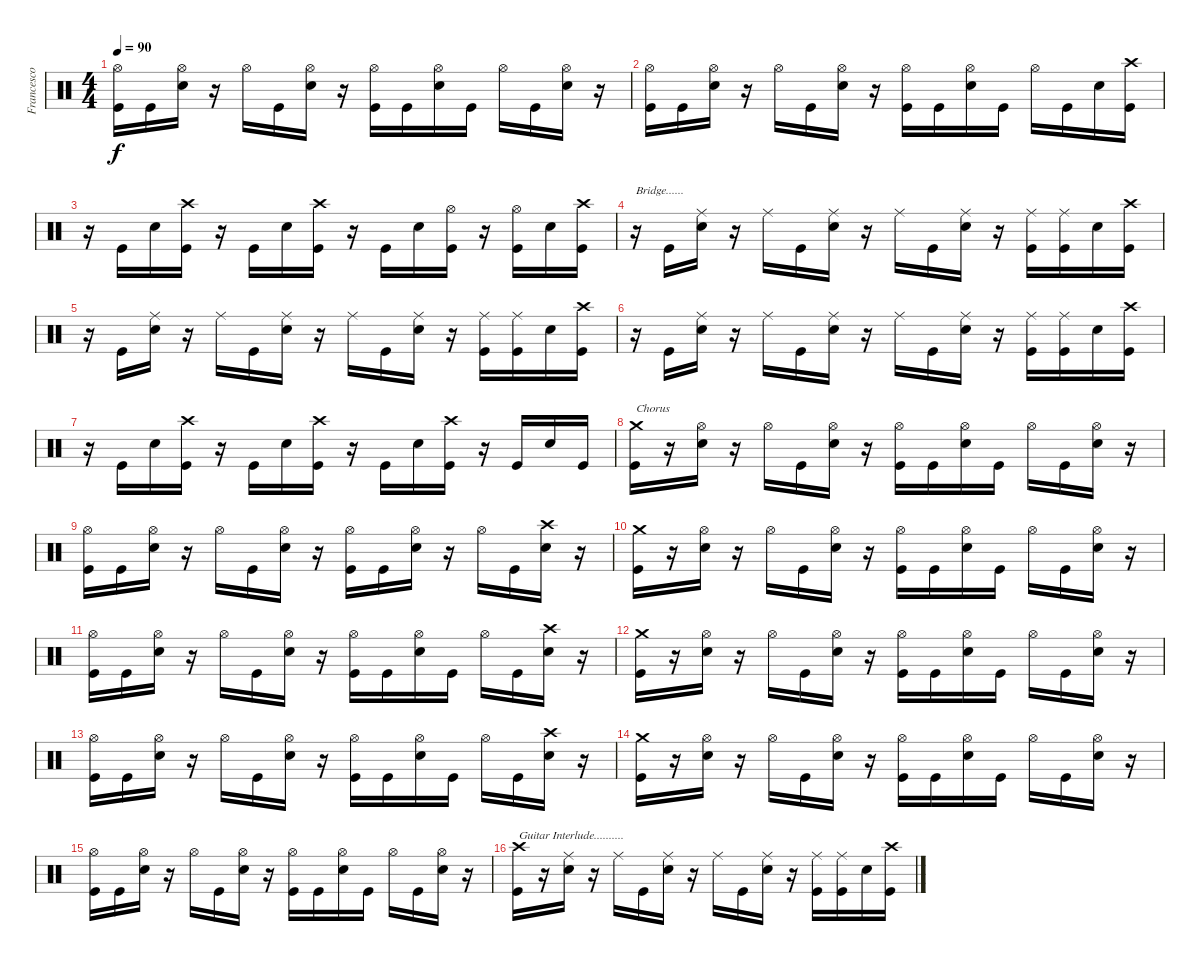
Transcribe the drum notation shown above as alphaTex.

\track ("Francesco Jovino" "Francesco ") {instrument percussion}
\staff {score}
\articulation defaults
\ts (4 4)
\tempo 90
\clef neutral
\ks c
("Hi-Hat (open)" "Kick (hit)").16{dy f} "Kick (hit)".16 ("Snare (hit) 2" "Hi-Hat (open)").16 r.16 "Hi-Hat (open)".16 "Kick (hit)".16 ("Snare (hit) 2" "Hi-Hat (open)").16 r.16 ("Kick (hit)" "Hi-Hat (open)").16 "Kick (hit)".16 ("Snare (hit) 2" "Hi-Hat (open)").16 "Kick (hit)".16 "Hi-Hat (open)".16 "Kick (hit)".16 ("Snare (hit) 2" "Hi-Hat (open)").16 r.16 |
("Hi-Hat (open)" "Kick (hit)").16 "Kick (hit)".16 ("Snare (hit) 2" "Hi-Hat (open)").16 r.16 "Hi-Hat (open)".16 "Kick (hit)".16 ("Snare (hit) 2" "Hi-Hat (open)").16 r.16 ("Kick (hit)" "Hi-Hat (open)").16 "Kick (hit)".16 ("Snare (hit) 2" "Hi-Hat (open)").16 "Kick (hit)".16 "Hi-Hat (open)".16 "Kick (hit)".16 "Snare (hit) 2".16 ("Kick (hit)" "Crash high (hit)").16 |
r.16 "Kick (hit)".16 "Snare (hit) 2".16 ("Crash high (hit)" "Kick (hit)").16 r.16 "Kick (hit)".16 "Snare (hit) 2".16 ("Crash high (hit)" "Kick (hit)").16 r.16 "Kick (hit)".16 "Snare (hit) 2".16 ("Kick (hit)" "Hi-Hat (open)").16 r.16 ("Kick (hit)" "Hi-Hat (open)").16 "Snare (hit) 2".16 ("Crash high (hit)" "Kick (hit)").16 |
r.16{txt "Bridge......"} "Kick (hit)".16 ("Snare (hit) 2" "Ride (middle)").16 r.16 "Ride (middle)".16 "Kick (hit)".16 ("Snare (hit) 2" "Ride (middle)").16 r.16 "Ride (middle)".16 "Kick (hit)".16 ("Snare (hit) 2" "Ride (middle)").16 r.16 ("Kick (hit)" "Ride (middle)").16 ("Kick (hit)" "Ride (middle)").16 "Snare (hit) 2".16 ("Kick (hit)" "Crash high (hit)").16 |
r.16 "Kick (hit)".16 ("Snare (hit) 2" "Ride (middle)").16 r.16 "Ride (middle)".16 "Kick (hit)".16 ("Snare (hit) 2" "Ride (middle)").16 r.16 "Ride (middle)".16 "Kick (hit)".16 ("Snare (hit) 2" "Ride (middle)").16 r.16 ("Kick (hit)" "Ride (middle)").16 ("Kick (hit)" "Ride (middle)").16 "Snare (hit) 2".16 ("Kick (hit)" "Crash high (hit)").16 |
r.16 "Kick (hit)".16 ("Snare (hit) 2" "Ride (middle)").16 r.16 "Ride (middle)".16 "Kick (hit)".16 ("Snare (hit) 2" "Ride (middle)").16 r.16 "Ride (middle)".16 "Kick (hit)".16 ("Snare (hit) 2" "Ride (middle)").16 r.16 ("Kick (hit)" "Ride (middle)").16 ("Kick (hit)" "Ride (middle)").16 "Snare (hit) 2".16 ("Kick (hit)" "Crash high (hit)").16 |
r.16 "Kick (hit)".16 "Snare (hit) 2".16 ("Crash high (hit)" "Kick (hit)").16 r.16 "Kick (hit)".16 "Snare (hit) 2".16 ("Crash high (hit)" "Kick (hit)").16 r.16 "Kick (hit)".16 "Snare (hit) 2".16 ("Kick (hit)" "Crash high (hit)").16 r.16 "Kick (hit)".16 "Snare (hit) 2".16 "Kick (hit)".16 |
("Kick (hit)" "Crash medium (hit)").16{txt "Chorus"} r.16 ("Snare (hit) 2" "Hi-Hat (open)").16 r.16 "Hi-Hat (open)".16 "Kick (hit)".16 ("Snare (hit) 2" "Hi-Hat (open)").16 r.16 ("Kick (hit)" "Hi-Hat (open)").16 "Kick (hit)".16 ("Snare (hit) 2" "Hi-Hat (open)").16 "Kick (hit)".16 "Hi-Hat (open)".16 "Kick (hit)".16 ("Snare (hit) 2" "Hi-Hat (open)").16 r.16 |
("Hi-Hat (open)" "Kick (hit)").16 "Kick (hit)".16 ("Snare (hit) 2" "Hi-Hat (open)").16 r.16 "Hi-Hat (open)".16 "Kick (hit)".16 ("Snare (hit) 2" "Hi-Hat (open)").16 r.16 ("Kick (hit)" "Hi-Hat (open)").16 "Kick (hit)".16 ("Snare (hit) 2" "Hi-Hat (open)").16 r.16 "Hi-Hat (open)".16 "Kick (hit)".16 ("Snare (hit) 2" "Crash high (hit)").16 r.16 |
("Kick (hit)" "Crash medium (hit)").16 r.16 ("Snare (hit) 2" "Hi-Hat (open)").16 r.16 "Hi-Hat (open)".16 "Kick (hit)".16 ("Snare (hit) 2" "Hi-Hat (open)").16 r.16 ("Kick (hit)" "Hi-Hat (open)").16 "Kick (hit)".16 ("Snare (hit) 2" "Hi-Hat (open)").16 "Kick (hit)".16 "Hi-Hat (open)".16 "Kick (hit)".16 ("Snare (hit) 2" "Hi-Hat (open)").16 r.16 |
("Kick (hit)" "Hi-Hat (open)").16 "Kick (hit)".16 ("Snare (hit) 2" "Hi-Hat (open)").16 r.16 "Hi-Hat (open)".16 "Kick (hit)".16 ("Snare (hit) 2" "Hi-Hat (open)").16 r.16 ("Kick (hit)" "Hi-Hat (open)").16 "Kick (hit)".16 ("Snare (hit) 2" "Hi-Hat (open)").16 "Kick (hit)".16 "Hi-Hat (open)".16 "Kick (hit)".16 ("Snare (hit) 2" "Crash high (hit)").16 r.16 |
("Kick (hit)" "Crash medium (hit)").16 r.16 ("Snare (hit) 2" "Hi-Hat (open)").16 r.16 "Hi-Hat (open)".16 "Kick (hit)".16 ("Snare (hit) 2" "Hi-Hat (open)").16 r.16 ("Kick (hit)" "Hi-Hat (open)").16 "Kick (hit)".16 ("Snare (hit) 2" "Hi-Hat (open)").16 "Kick (hit)".16 "Hi-Hat (open)".16 "Kick (hit)".16 ("Snare (hit) 2" "Hi-Hat (open)").16 r.16 |
("Hi-Hat (open)" "Kick (hit)").16 "Kick (hit)".16 ("Snare (hit) 2" "Hi-Hat (open)").16 r.16 "Hi-Hat (open)".16 "Kick (hit)".16 ("Snare (hit) 2" "Hi-Hat (open)").16 r.16 ("Kick (hit)" "Hi-Hat (open)").16 "Kick (hit)".16 ("Snare (hit) 2" "Hi-Hat (open)").16 "Kick (hit)".16 "Hi-Hat (open)".16 "Kick (hit)".16 ("Snare (hit) 2" "Crash high (hit)").16 r.16 |
("Kick (hit)" "Crash medium (hit)").16 r.16 ("Snare (hit) 2" "Hi-Hat (open)").16 r.16 "Hi-Hat (open)".16 "Kick (hit)".16 ("Snare (hit) 2" "Hi-Hat (open)").16 r.16 ("Kick (hit)" "Hi-Hat (open)").16 "Kick (hit)".16 ("Snare (hit) 2" "Hi-Hat (open)").16 "Kick (hit)".16 "Hi-Hat (open)".16 "Kick (hit)".16 ("Snare (hit) 2" "Hi-Hat (open)").16 r.16 |
("Hi-Hat (open)" "Kick (hit)").16 "Kick (hit)".16 ("Snare (hit) 2" "Hi-Hat (open)").16 r.16 "Hi-Hat (open)".16 "Kick (hit)".16 ("Snare (hit) 2" "Hi-Hat (open)").16 r.16 ("Kick (hit)" "Hi-Hat (open)").16 "Kick (hit)".16 ("Snare (hit) 2" "Hi-Hat (open)").16 "Kick (hit)".16 "Hi-Hat (open)".16 "Kick (hit)".16 ("Snare (hit) 2" "Hi-Hat (open)").16 r.16 |
("Crash high (hit)" "Kick (hit)").16{txt "Guitar Interlude.........."} r.16 ("Snare (hit) 2" "Ride (middle)").16 r.16 "Ride (middle)".16 "Kick (hit)".16 ("Snare (hit) 2" "Ride (middle)").16 r.16 "Ride (middle)".16 "Kick (hit)".16 ("Snare (hit) 2" "Ride (middle)").16 r.16 ("Kick (hit)" "Ride (middle)").16 ("Kick (hit)" "Ride (middle)").16 "Snare (hit) 2".16 ("Kick (hit)" "Crash high (hit)").16
